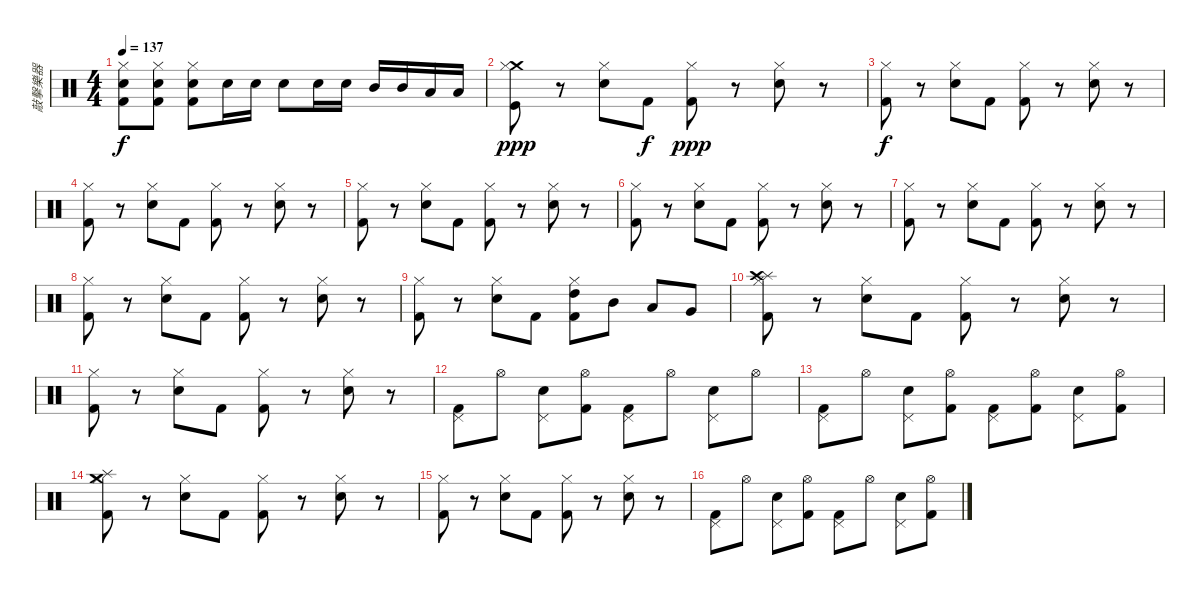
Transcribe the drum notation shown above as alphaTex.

\track ("敲擊樂器" "敲擊樂器") {instrument percussion}
\staff {score}
\articulation defaults
\ts (4 4)
\tempo 137
\clef neutral
\ks c
("Hi-Hat (closed)" "Snare (hit) 2" "Kick (hit) 2").8{dy f} ("Hi-Hat (closed)" "Snare (hit) 2" "Kick (hit) 2").8 ("Hi-Hat (closed)" "Snare (hit) 2" "Kick (hit) 2").8 "Snare (hit) 2".16 "Snare (hit) 2".16 "Snare (hit) 2".8 "Snare (hit) 2".16 "Snare (hit) 2".16 "Mid Tom (hit)".16 "Mid Tom (hit)".16 "Low Tom (hit)".16 "Low Tom (hit)".16 |
("Crash medium (hit)" "Kick (hit)" "Hi-Hat (closed)").8{dy ppp} r.8 ("Snare (hit) 2" "Hi-Hat (closed)").8 "Kick (hit) 2".8{dy f} ("Kick (hit) 2" "Hi-Hat (closed)").8{dy ppp} r.8 ("Snare (hit) 2" "Hi-Hat (closed)").8 r.8 |
("Kick (hit) 2" "Hi-Hat (closed)").8{dy f} r.8 ("Snare (hit) 2" "Hi-Hat (closed)").8 "Kick (hit) 2".8 ("Kick (hit) 2" "Hi-Hat (closed)").8 r.8 ("Snare (hit) 2" "Hi-Hat (closed)").8 r.8 |
("Kick (hit) 2" "Hi-Hat (closed)").8 r.8 ("Snare (hit) 2" "Hi-Hat (closed)").8 "Kick (hit) 2".8 ("Kick (hit) 2" "Hi-Hat (closed)").8 r.8 ("Snare (hit) 2" "Hi-Hat (closed)").8 r.8 |
("Kick (hit) 2" "Hi-Hat (closed)").8 r.8 ("Snare (hit) 2" "Hi-Hat (closed)").8 "Kick (hit) 2".8 ("Kick (hit) 2" "Hi-Hat (closed)").8 r.8 ("Snare (hit) 2" "Hi-Hat (closed)").8 r.8 |
("Kick (hit) 2" "Hi-Hat (closed)").8 r.8 ("Snare (hit) 2" "Hi-Hat (closed)").8 "Kick (hit) 2".8 ("Kick (hit) 2" "Hi-Hat (closed)").8 r.8 ("Snare (hit) 2" "Hi-Hat (closed)").8 r.8 |
("Kick (hit) 2" "Hi-Hat (closed)").8 r.8 ("Snare (hit) 2" "Hi-Hat (closed)").8 "Kick (hit) 2".8 ("Kick (hit) 2" "Hi-Hat (closed)").8 r.8 ("Snare (hit) 2" "Hi-Hat (closed)").8 r.8 |
("Kick (hit) 2" "Hi-Hat (closed)").8 r.8 ("Snare (hit) 2" "Hi-Hat (closed)").8 "Kick (hit) 2".8 ("Kick (hit) 2" "Hi-Hat (closed)").8 r.8 ("Snare (hit) 2" "Hi-Hat (closed)").8 r.8 |
("Kick (hit) 2" "Hi-Hat (closed)").8 r.8 ("Snare (hit) 2" "Hi-Hat (closed)").8 "Kick (hit) 2".8 ("High Tom (hit)" "Kick (hit) 2" "Hi-Hat (closed)").8 "Mid Tom (hit)".8 "Low Tom (hit)".8 "Very Low Tom (hit)".8 |
("Splash (hit)" "Crash high (hit)" "Kick (hit) 2" "Hi-Hat (closed)").8 r.8 ("Snare (hit) 2" "Hi-Hat (closed)").8 "Kick (hit) 2".8 ("Kick (hit) 2" "Hi-Hat (closed)").8 r.8 ("Snare (hit) 2" "Hi-Hat (closed)").8 r.8 |
("Kick (hit) 2" "Hi-Hat (closed)").8 r.8 ("Snare (hit) 2" "Hi-Hat (closed)").8 "Kick (hit) 2".8 ("Kick (hit) 2" "Hi-Hat (closed)").8 r.8 ("Snare (hit) 2" "Hi-Hat (closed)").8 r.8 |
("Kick (hit) 2" "Pedal Hi-Hat (hit)").8 "Hi-Hat (open)".8 ("Snare (hit) 2" "Pedal Hi-Hat (hit)").8 ("Kick (hit) 2" "Hi-Hat (open)").8 ("Kick (hit) 2" "Pedal Hi-Hat (hit)").8 "Hi-Hat (open)".8 ("Snare (hit) 2" "Pedal Hi-Hat (hit)").8 "Hi-Hat (open)".8 |
("Kick (hit) 2" "Pedal Hi-Hat (hit)").8 "Hi-Hat (open)".8 ("Snare (hit) 2" "Pedal Hi-Hat (hit)").8 ("Kick (hit) 2" "Hi-Hat (open)").8 ("Kick (hit) 2" "Pedal Hi-Hat (hit)").8 ("Kick (hit) 2" "Hi-Hat (open)").8 ("Snare (hit) 2" "Pedal Hi-Hat (hit)").8 ("Kick (hit) 2" "Hi-Hat (open)").8 |
("Crash medium (hit)" "Splash (hit)" "Kick (hit) 2" "Hi-Hat (closed)").8 r.8 ("Snare (hit) 2" "Hi-Hat (closed)").8 "Kick (hit) 2".8 ("Kick (hit) 2" "Hi-Hat (closed)").8 r.8 ("Snare (hit) 2" "Hi-Hat (closed)").8 r.8 |
("Kick (hit) 2" "Hi-Hat (closed)").8 r.8 ("Snare (hit) 2" "Hi-Hat (closed)").8 "Kick (hit) 2".8 ("Kick (hit) 2" "Hi-Hat (closed)").8 r.8 ("Snare (hit) 2" "Hi-Hat (closed)").8 r.8 |
("Kick (hit) 2" "Pedal Hi-Hat (hit)").8 "Hi-Hat (open)".8 ("Snare (hit) 2" "Pedal Hi-Hat (hit)").8 ("Kick (hit) 2" "Hi-Hat (open)").8 ("Kick (hit) 2" "Pedal Hi-Hat (hit)").8 "Hi-Hat (open)".8 ("Snare (hit) 2" "Pedal Hi-Hat (hit)").8 ("Kick (hit) 2" "Hi-Hat (open)").8
